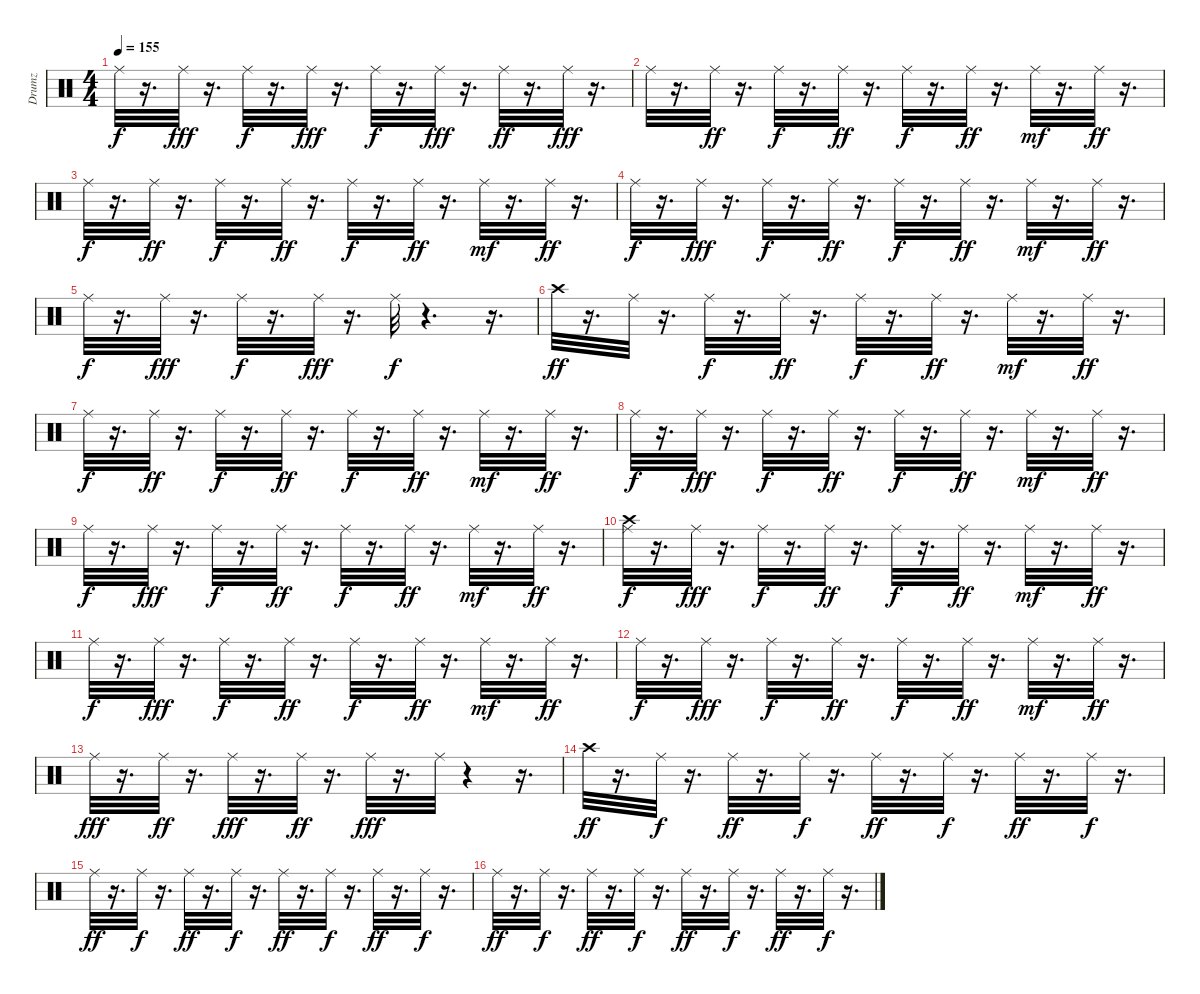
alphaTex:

\track ("Drumz" "Drumz") {instrument percussion}
\staff {score}
\articulation defaults
\ts (4 4)
\tempo 155
\clef neutral
\ks c "Ride (middle)".32{dy f}
r.16{d} "Ride (middle)".32{dy fff} r.16{d} "Ride (middle)".32{dy f} r.16{d} "Ride (middle)".32{dy fff} r.16{d} "Ride (middle)".32{dy f} r.16{d} "Ride (middle)".32{dy fff} r.16{d} "Ride (middle)".32{dy ff} r.16{d} "Ride (middle)".32{dy fff} r.16{d} |
"Ride (middle)".32 r.16{d} "Ride (middle)".32{dy ff} r.16{d} "Ride (middle)".32{dy f} r.16{d} "Ride (middle)".32{dy ff} r.16{d} "Ride (middle)".32{dy f} r.16{d} "Ride (middle)".32{dy ff} r.16{d} "Ride (middle)".32{dy mf} r.16{d} "Ride (middle)".32{dy ff} r.16{d} |
"Ride (middle)".32{dy f} r.16{d} "Ride (middle)".32{dy ff} r.16{d} "Ride (middle)".32{dy f} r.16{d} "Ride (middle)".32{dy ff} r.16{d} "Ride (middle)".32{dy f} r.16{d} "Ride (middle)".32{dy ff} r.16{d} "Ride (middle)".32{dy mf} r.16{d} "Ride (middle)".32{dy ff} r.16{d} |
"Ride (middle)".32{dy f} r.16{d} "Ride (middle)".32{dy fff} r.16{d} "Ride (middle)".32{dy f} r.16{d} "Ride (middle)".32{dy ff} r.16{d} "Ride (middle)".32{dy f} r.16{d} "Ride (middle)".32{dy ff} r.16{d} "Ride (middle)".32{dy mf} r.16{d} "Ride (middle)".32{dy ff} r.16{d} |
"Ride (middle)".32{dy f} r.16{d} "Ride (middle)".32{dy fff} r.16{d} "Ride (middle)".32{dy f} r.16{d} "Ride (middle)".32{dy fff} r.16{d} "Ride (middle)".32{dy f} r.4{d} r.16{d} |
"Crash high (hit)".32{dy ff} r.16{d} "Ride (middle)".32 r.16{d} "Ride (middle)".32{dy f} r.16{d} "Ride (middle)".32{dy ff} r.16{d} "Ride (middle)".32{dy f} r.16{d} "Ride (middle)".32{dy ff} r.16{d} "Ride (middle)".32{dy mf} r.16{d} "Ride (middle)".32{dy ff} r.16{d} |
"Ride (middle)".32{dy f} r.16{d} "Ride (middle)".32{dy ff} r.16{d} "Ride (middle)".32{dy f} r.16{d} "Ride (middle)".32{dy ff} r.16{d} "Ride (middle)".32{dy f} r.16{d} "Ride (middle)".32{dy ff} r.16{d} "Ride (middle)".32{dy mf} r.16{d} "Ride (middle)".32{dy ff} r.16{d} |
"Ride (middle)".32{dy f} r.16{d} "Ride (middle)".32{dy fff} r.16{d} "Ride (middle)".32{dy f} r.16{d} "Ride (middle)".32{dy ff} r.16{d} "Ride (middle)".32{dy f} r.16{d} "Ride (middle)".32{dy ff} r.16{d} "Ride (middle)".32{dy mf} r.16{d} "Ride (middle)".32{dy ff} r.16{d} |
"Ride (middle)".32{dy f} r.16{d} "Ride (middle)".32{dy fff} r.16{d} "Ride (middle)".32{dy f} r.16{d} "Ride (middle)".32{dy ff} r.16{d} "Ride (middle)".32{dy f} r.16{d} "Ride (middle)".32{dy ff} r.16{d} "Ride (middle)".32{dy mf} r.16{d} "Ride (middle)".32{dy ff} r.16{d} |
("Crash high (hit)" "Ride (middle)").32{dy f} r.16{d} "Ride (middle)".32{dy fff} r.16{d} "Ride (middle)".32{dy f} r.16{d} "Ride (middle)".32{dy ff} r.16{d} "Ride (middle)".32{dy f} r.16{d} "Ride (middle)".32{dy ff} r.16{d} "Ride (middle)".32{dy mf} r.16{d} "Ride (middle)".32{dy ff} r.16{d} |
"Ride (middle)".32{dy f} r.16{d} "Ride (middle)".32{dy fff} r.16{d} "Ride (middle)".32{dy f} r.16{d} "Ride (middle)".32{dy ff} r.16{d} "Ride (middle)".32{dy f} r.16{d} "Ride (middle)".32{dy ff} r.16{d} "Ride (middle)".32{dy mf} r.16{d} "Ride (middle)".32{dy ff} r.16{d} |
"Ride (middle)".32{dy f} r.16{d} "Ride (middle)".32{dy fff} r.16{d} "Ride (middle)".32{dy f} r.16{d} "Ride (middle)".32{dy ff} r.16{d} "Ride (middle)".32{dy f} r.16{d} "Ride (middle)".32{dy ff} r.16{d} "Ride (middle)".32{dy mf} r.16{d} "Ride (middle)".32{dy ff} r.16{d} |
"Ride (middle)".32{dy fff} r.16{d} "Ride (middle)".32{dy ff} r.16{d} "Ride (middle)".32{dy fff} r.16{d} "Ride (middle)".32{dy ff} r.16{d} "Ride (middle)".32{dy fff} r.16{d} "Ride (middle)".32 r.4 r.16{d} |
"Crash high (hit)".32{dy ff} r.16{d} "Ride (middle)".32{dy f} r.16{d} "Ride (middle)".32{dy ff} r.16{d} "Ride (middle)".32{dy f} r.16{d} "Ride (middle)".32{dy ff} r.16{d} "Ride (middle)".32{dy f} r.16{d} "Ride (middle)".32{dy ff} r.16{d} "Ride (middle)".32{dy f} r.16{d} |
"Ride (middle)".32{dy ff} r.16{d} "Ride (middle)".32{dy f} r.16{d} "Ride (middle)".32{dy ff} r.16{d} "Ride (middle)".32{dy f} r.16{d} "Ride (middle)".32{dy ff} r.16{d} "Ride (middle)".32{dy f} r.16{d} "Ride (middle)".32{dy ff} r.16{d} "Ride (middle)".32{dy f} r.16{d} |
"Ride (middle)".32{dy ff} r.16{d} "Ride (middle)".32{dy f} r.16{d} "Ride (middle)".32{dy ff} r.16{d} "Ride (middle)".32{dy f} r.16{d} "Ride (middle)".32{dy ff} r.16{d} "Ride (middle)".32{dy f} r.16{d} "Ride (middle)".32{dy ff} r.16{d} "Ride (middle)".32{dy f} r.16{d}
